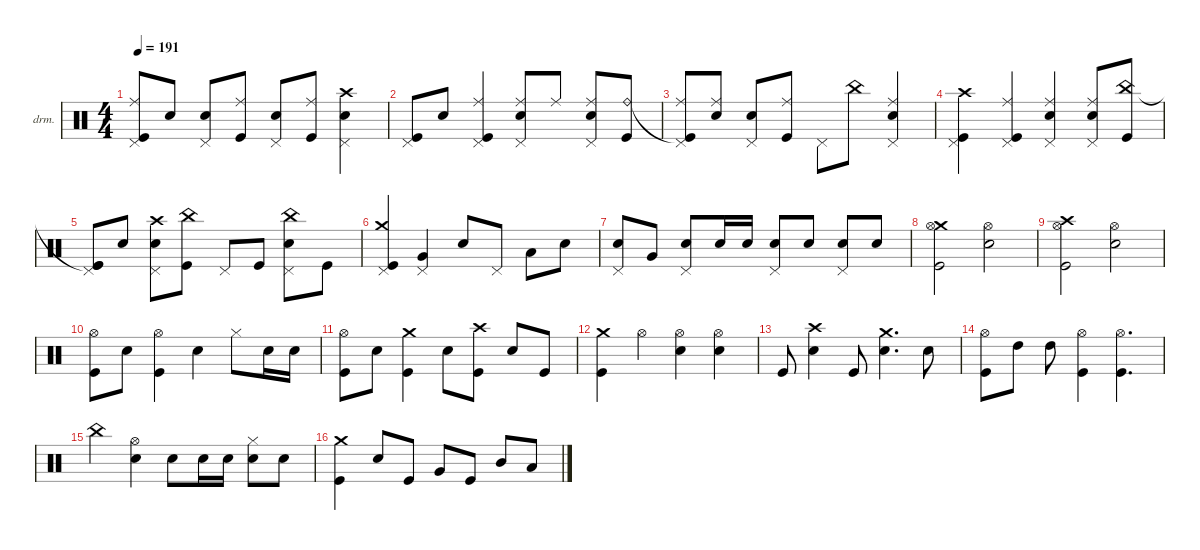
\defaultSystemsLayout 4
\hideDynamics
\bracketExtendMode nobrackets
\firstSystemTrackNameOrientation horizontal
\otherSystemsTrackNameOrientation horizontal
\track ("Drumkit" "drm.") {instrument percussion}
\staff {score}
\articulation defaults
\ts (4 4)
\tempo 191
\clef neutral
\ks c
("Pedal Hi-Hat (hit)" "Kick (hit)"{t} "Ride (middle)").8{dy f beam Up} "Snare (hit) 2".8{dy mp beam Up} ("Pedal Hi-Hat (hit)" "Snare (hit) 2").8{dy f beam Up} ("Kick (hit)" "Ride (middle)").8{dy mp beam Up} ("Pedal Hi-Hat (hit)" "Snare (hit) 2").8{dy f beam Up} ("Kick (hit)" "Ride (middle)").8{dy mp beam Up} ("Pedal Hi-Hat (hit)" "Snare (hit) 2" "Crash high (hit)").4{dy f beam Down} |
("Pedal Hi-Hat (hit)" "Kick (hit)").8{beam Up} "Snare (hit) 2".8{dy mp beam Up} ("Pedal Hi-Hat (hit)" "Kick (hit)" "Ride (middle)").4{dy f beam Up} ("Pedal Hi-Hat (hit)" "Snare (hit) 2" "Ride (middle)").8{beam Up} "Ride (middle)".8{dy mp beam Up} ("Pedal Hi-Hat (hit)" "Snare (hit) 2" "Ride (middle)").8{dy f beam Up} ("Kick (hit)" "Ride (bell)").8{dy mp beam Up} |
("Pedal Hi-Hat (hit)" "Kick (hit)"{t} "Ride (middle)").8{dy f beam Up} ("Snare (hit) 2" "Ride (middle)").8{dy mp beam Up} ("Pedal Hi-Hat (hit)" "Snare (hit) 2").8{dy f beam Up} ("Kick (hit)" "Ride (middle)").8{dy mp beam Up} "Pedal Hi-Hat (hit)".8{dy f beam Down} "China (hit)".8{dy mp beam Down} ("Pedal Hi-Hat (hit)" "Snare (hit) 2" "Ride (middle)").4{dy f beam Up} |
("Pedal Hi-Hat (hit)" "Kick (hit)" "Crash high (hit)").4{beam Down} ("Pedal Hi-Hat (hit)" "Kick (hit)" "Ride (middle)").4{beam Up} ("Pedal Hi-Hat (hit)" "Snare (hit) 2" "Ride (middle)").4{beam Up} ("Pedal Hi-Hat (hit)" "Snare (hit) 2" "Ride (middle)").8{beam Up} ("Kick (hit)" "China (hit)").8{dy mp beam Up} |
("Kick (hit)" "Kick (hit)"{t} "Pedal Hi-Hat (hit)").8{beam Up} "Snare (hit) 2".8{beam Up} ("Snare (hit) 2" "Crash high (hit)" "Pedal Hi-Hat (hit)").8{beam Down} ("Kick (hit)" "China (hit)").8{beam Down} "Pedal Hi-Hat (hit)".8{beam Up} "Kick (hit)".8{beam Up} ("Snare (hit) 2" "China (hit)" "Pedal Hi-Hat (hit)").8{beam Down} "Kick (hit)".8{beam Down} |
("Kick (hit)" "Crash medium (hit)" "Pedal Hi-Hat (hit)").4{beam Up} ("Pedal Hi-Hat (hit)" "Very Low Tom (hit)").4{dy f beam Up} "Snare (hit) 2".8{beam Up} "Pedal Hi-Hat (hit)".8{beam Up} "Low Tom (hit)".8{beam Down} "Snare (hit) 2".8{beam Down} |
("Snare (hit) 2" "Pedal Hi-Hat (hit)").8{beam Up} "Very Low Tom (hit)".8{beam Up} ("Snare (hit) 2" "Pedal Hi-Hat (hit)").8{beam Up} "Snare (hit) 2".16{dy mp beam Up} "Snare (hit) 2".16{beam Up} ("Snare (hit) 2" "Pedal Hi-Hat (hit)").8{dy f beam Up} "Snare (hit) 2".8{beam Up} ("Snare (hit) 2" "Pedal Hi-Hat (hit)").8{dy mf beam Up} "Snare (hit) 2".8{dy f beam Up} |
("Kick (hit)" "Crash medium (hit)" "Hi-Hat (open)").2{beam Down} ("Snare (hit) 2" "Hi-Hat (open)").2{beam Down} |
("Kick (hit)" "Crash high (hit)" "Hi-Hat (open)").2{beam Down} ("Snare (hit) 2" "Hi-Hat (open)").2{beam Down} |
("Kick (hit)" "Hi-Hat (open)").8{beam Down} "Snare (hit) 2".8{dy mf beam Down} ("Kick (hit)" "Hi-Hat (open)").4{dy f beam Down} "Snare (hit) 2".4{beam Down} "Hi-Hat (closed)".8{beam Down} "Snare (hit) 2".16{beam Down} "Snare (hit) 2".16{beam Down} |
("Kick (hit)" "Hi-Hat (open)").8{beam Down} "Snare (hit) 2".8{beam Down} ("Kick (hit)" "Crash medium (hit)").4{beam Down} "Snare (hit) 2".8{beam Down} ("Crash high (hit)" "Kick (hit)").8{beam Down} "Snare (hit) 2".8{dy mf beam Up} "Kick (hit)".8{dy f beam Up} |
("Kick (hit)" "Crash medium (hit)").4{beam Down} "Hi-Hat (open)".4{beam Down} ("Hi-Hat (open)" "Snare (hit) 2").4{beam Down} ("Hi-Hat (open)" "Snare (hit) 2").4{beam Down} |
"Kick (hit)".8{beam Up} ("Snare (hit) 2" "Crash high (hit)").4{beam Down} "Kick (hit)".8{beam Up} ("Snare (hit) 2" "Crash medium (hit)").4{d beam Down} "Snare (hit) 2".8{beam Down} |
("Kick (hit)" "Hi-Hat (open)").8{beam Down} "High Tom (hit)".8{dy mp beam Down} "High Tom (hit)".8{beam Down} ("Hi-Hat (open)" "Kick (hit)").4{beam Down} ("Kick (hit)" "Hi-Hat (open)").4{d beam Down} |
"China (hit)".4{dy mf beam Down} ("Snare (hit) 2" "Hi-Hat (open)").4{beam Down} "Snare (hit) 2".8{beam Down} "Snare (hit) 2".16{beam Down} "Snare (hit) 2".16{beam Down} ("Snare (hit) 2" "Hi-Hat (closed)").8{beam Down} "Snare (hit) 2".8{beam Down} |
("Kick (hit)" "Crash medium (hit)").4{beam Down} "Snare (hit) 2".8{beam Up} "Kick (hit)".8{beam Up} "Very Low Tom (hit)".8{beam Up} "Kick (hit)".8{beam Up} "Mid Tom (hit)".8{beam Up} "Low Tom (hit)".8{beam Up}
